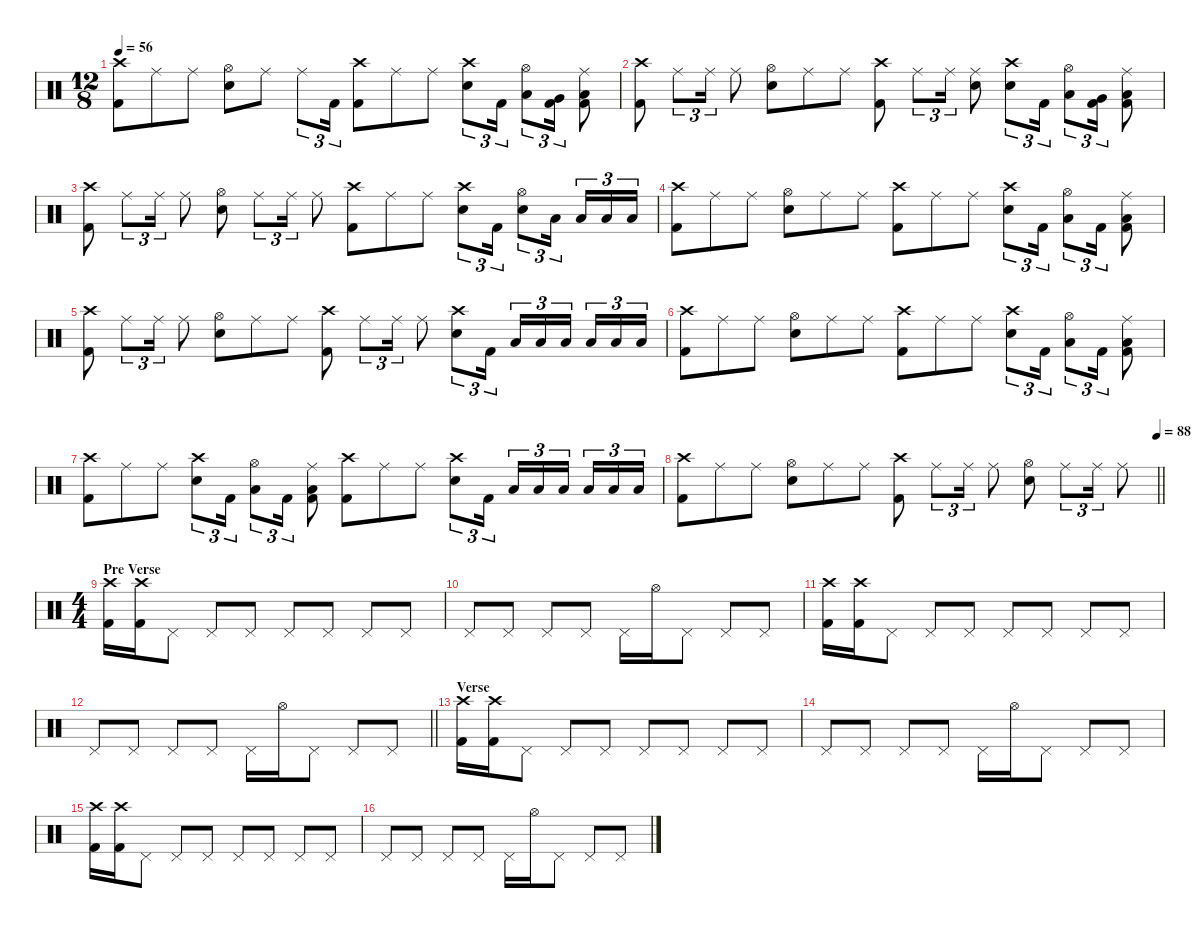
\defaultSystemsLayout 4
\hideDynamics
\bracketExtendMode nobrackets
\singleTrackTrackNamePolicy hidden
\multiTrackTrackNamePolicy hidden
\firstSystemTrackNameMode fullname
\firstSystemTrackNameOrientation horizontal
\otherSystemsTrackNameOrientation horizontal
\track ("Drums" "drm.") {instrument percussion}
\staff {score}
\articulation defaults
\ts (12 8)
\beaming (8 3 3 3 3)
\tempo 56
\clef neutral
\ks c
("Crash high (hit)" "Kick (hit) 2").8{dy f beam Down} "Ride (middle)".8{beam Down} "Ride (middle)".8{beam Down} ("Hi-Hat (open)" "Snare (hit) 2").8{beam Down} "Ride (middle)".8{beam Down} "Ride (middle)".8{tu (3 2) beam Down} "Kick (hit) 2".16{tu (3 2) beam Down} ("Crash high (hit)" "Kick (hit) 2").8{beam Down} "Ride (middle)".8{beam Down} "Ride (middle)".8{beam Down} ("Crash high (hit)" "Snare (hit) 2").8{tu (3 2) beam Down} "Kick (hit) 2".16{tu (3 2) beam Down} ("Hi-Hat (open)" "Low Tom (hit)").8{tu (3 2) beam Down} ("Very Low Tom (hit)" "Kick (hit) 2").16{tu (3 2) beam Down} ("Ride (middle)" "Low Tom (hit)" "Kick (hit) 2").8{beam Down} |
("Crash high (hit)" "Kick (hit) 2").8{beam Down} "Ride (middle)".8{tu (3 2) beam Down} "Ride (middle)".16{tu (3 2) beam Down} "Ride (middle)".8{beam Down} ("Hi-Hat (open)" "Snare (hit) 2").8{beam Down} "Ride (middle)".8{beam Down} "Ride (middle)".8{beam Down} ("Crash high (hit)" "Kick (hit) 2").8{beam Down} "Ride (middle)".8{tu (3 2) beam Down} "Ride (middle)".16{tu (3 2) beam Down} ("Ride (middle)" "Snare (hit) 2").8{beam Down} ("Crash high (hit)" "Snare (hit) 2").8{tu (3 2) beam Down} "Kick (hit) 2".16{tu (3 2) beam Down} ("Hi-Hat (open)" "Low Tom (hit)").8{tu (3 2) beam Down} ("Very Low Tom (hit)" "Kick (hit) 2").16{tu (3 2) beam Down} ("Ride (middle)" "Low Tom (hit)" "Kick (hit) 2").8{beam Down} |
("Crash high (hit)" "Kick (hit) 2").8{beam Down} "Ride (middle)".8{tu (3 2) beam Down} "Ride (middle)".16{tu (3 2) beam Down} "Ride (middle)".8{beam Down} ("Hi-Hat (open)" "Snare (hit) 2").8{beam Down} "Ride (middle)".8{tu (3 2) beam Down} "Ride (middle)".16{tu (3 2) beam Down} "Ride (middle)".8{beam Down} ("Crash high (hit)" "Kick (hit) 2").8{beam Down} "Ride (middle)".8{beam Down} "Ride (middle)".8{beam Down} ("Crash high (hit)" "Snare (hit) 2").8{tu (3 2) beam Down} "Kick (hit) 2".16{tu (3 2) beam Down} ("Hi-Hat (open)" "Snare (hit) 2").8{tu (3 2) beam Down} "Low Tom (hit)".16{tu (3 2) beam Down} "Low Tom (hit)".16{tu (3 2) beam Up} "Low Tom (hit)".16{tu (3 2) beam Up} "Low Tom (hit)".16{tu (3 2) beam Up} |
("Crash high (hit)" "Kick (hit) 2").8{beam Down} "Ride (middle)".8{beam Down} "Ride (middle)".8{beam Down} ("Hi-Hat (open)" "Snare (hit) 2").8{beam Down} "Ride (middle)".8{beam Down} "Ride (middle)".8{beam Down} ("Crash high (hit)" "Kick (hit) 2").8{beam Down} "Ride (middle)".8{beam Down} "Ride (middle)".8{beam Down} ("Crash high (hit)" "Snare (hit) 2").8{tu (3 2) beam Down} "Kick (hit) 2".16{tu (3 2) beam Down} ("Hi-Hat (open)" "Low Tom (hit)").8{tu (3 2) beam Down} "Kick (hit) 2".16{tu (3 2) beam Down} ("Ride (middle)" "Low Tom (hit)" "Kick (hit) 2").8{beam Down} |
("Crash high (hit)" "Kick (hit) 2").8{beam Down} "Ride (middle)".8{tu (3 2) beam Down} "Ride (middle)".16{tu (3 2) beam Down} "Ride (middle)".8{beam Down} ("Hi-Hat (open)" "Snare (hit) 2").8{beam Down} "Ride (middle)".8{beam Down} "Ride (middle)".8{beam Down} ("Crash high (hit)" "Kick (hit) 2").8{beam Down} "Ride (middle)".8{tu (3 2) beam Down} "Ride (middle)".16{tu (3 2) beam Down} "Ride (middle)".8{beam Down} ("Crash high (hit)" "Snare (hit) 2").8{tu (3 2) beam Down} "Kick (hit) 2".16{tu (3 2) beam Down} "Low Tom (hit)".16{tu (3 2) beam Up} "Low Tom (hit)".16{tu (3 2) beam Up} "Low Tom (hit)".16{tu (3 2) beam Up} "Low Tom (hit)".16{tu (3 2) beam Up} "Low Tom (hit)".16{tu (3 2) beam Up} "Low Tom (hit)".16{tu (3 2) beam Up} |
("Crash high (hit)" "Kick (hit) 2").8{beam Down} "Ride (middle)".8{beam Down} "Ride (middle)".8{beam Down} ("Hi-Hat (open)" "Snare (hit) 2").8{beam Down} "Ride (middle)".8{beam Down} "Ride (middle)".8{beam Down} ("Crash high (hit)" "Kick (hit) 2").8{beam Down} "Ride (middle)".8{beam Down} "Ride (middle)".8{beam Down} ("Crash high (hit)" "Snare (hit) 2").8{tu (3 2) beam Down} "Kick (hit) 2".16{tu (3 2) beam Down} ("Hi-Hat (open)" "Low Tom (hit)").8{tu (3 2) beam Down} "Kick (hit) 2".16{tu (3 2) beam Down} ("Ride (middle)" "Low Tom (hit)" "Kick (hit) 2").8{beam Down} |
("Crash high (hit)" "Kick (hit) 2").8{beam Down} "Ride (middle)".8{beam Down} "Ride (middle)".8{beam Down} ("Crash high (hit)" "Snare (hit) 2").8{tu (3 2) beam Down} "Kick (hit) 2".16{tu (3 2) beam Down} ("Hi-Hat (open)" "Low Tom (hit)").8{tu (3 2) beam Down} "Kick (hit) 2".16{tu (3 2) beam Down} ("Ride (middle)" "Low Tom (hit)" "Kick (hit) 2").8{beam Down} ("Crash high (hit)" "Kick (hit) 2").8{beam Down} "Ride (middle)".8{beam Down} "Ride (middle)".8{beam Down} ("Crash high (hit)" "Snare (hit) 2").8{tu (3 2) beam Down} "Kick (hit) 2".16{tu (3 2) beam Down} "Low Tom (hit)".16{tu (3 2) beam Up} "Low Tom (hit)".16{tu (3 2) beam Up} "Low Tom (hit)".16{tu (3 2) beam Up} "Low Tom (hit)".16{tu (3 2) beam Up} "Low Tom (hit)".16{tu (3 2) beam Up} "Low Tom (hit)".16{tu (3 2) beam Up} |
\tempo (88 1)
\barLineRight lightlight
("Crash high (hit)" "Kick (hit) 2").8{beam Down} "Ride (middle)".8{beam Down} "Ride (middle)".8{beam Down} ("Hi-Hat (open)" "Snare (hit) 2").8{beam Down} "Ride (middle)".8{beam Down} "Ride (middle)".8{beam Down} ("Crash high (hit)" "Kick (hit) 2").8{beam Down} "Ride (middle)".8{tu (3 2) beam Down} "Ride (middle)".16{tu (3 2) beam Down} "Ride (middle)".8{beam Down} ("Hi-Hat (open)" "Snare (hit) 2").8{beam Down} "Ride (middle)".8{tu (3 2) beam Down} "Ride (middle)".16{tu (3 2) beam Down} "Ride (middle)".8{beam Down} |
\ts (4 4)
\beaming (8 2 2 2 2)
\section ("" "Pre Verse")
("Crash high (hit)" "Kick (hit) 2").16{beam Down} ("Crash high (hit)" "Kick (hit) 2").16{beam Down} "Pedal Hi-Hat (hit)".8{beam Down} "Pedal Hi-Hat (hit)".8{beam Up} "Pedal Hi-Hat (hit)".8{beam Up} "Pedal Hi-Hat (hit)".8{beam Up} "Pedal Hi-Hat (hit)".8{beam Up} "Pedal Hi-Hat (hit)".8{beam Up} "Pedal Hi-Hat (hit)".8{beam Up} |
"Pedal Hi-Hat (hit)".8{beam Up} "Pedal Hi-Hat (hit)".8{beam Up} "Pedal Hi-Hat (hit)".8{beam Up} "Pedal Hi-Hat (hit)".8{beam Up} "Pedal Hi-Hat (hit)".16{beam Down} "Hi-Hat (open)".16{beam Down} "Pedal Hi-Hat (hit)".8{beam Down} "Pedal Hi-Hat (hit)".8{beam Up} "Pedal Hi-Hat (hit)".8{beam Up} |
("Crash high (hit)" "Kick (hit) 2").16{beam Down} ("Crash high (hit)" "Kick (hit) 2").16{beam Down} "Pedal Hi-Hat (hit)".8{beam Down} "Pedal Hi-Hat (hit)".8{beam Up} "Pedal Hi-Hat (hit)".8{beam Up} "Pedal Hi-Hat (hit)".8{beam Up} "Pedal Hi-Hat (hit)".8{beam Up} "Pedal Hi-Hat (hit)".8{beam Up} "Pedal Hi-Hat (hit)".8{beam Up} |
\barLineRight lightlight "Pedal Hi-Hat (hit)".8{beam Up} "Pedal Hi-Hat (hit)".8{beam Up} "Pedal Hi-Hat (hit)".8{beam Up} "Pedal Hi-Hat (hit)".8{beam Up} "Pedal Hi-Hat (hit)".16{beam Down} "Hi-Hat (open)".16{beam Down} "Pedal Hi-Hat (hit)".8{beam Down} "Pedal Hi-Hat (hit)".8{beam Up} "Pedal Hi-Hat (hit)".8{beam Up}
|
\section ("" "Verse")
("Crash high (hit)" "Kick (hit) 2").16{beam Down} ("Crash high (hit)" "Kick (hit) 2").16{beam Down} "Pedal Hi-Hat (hit)".8{beam Down} "Pedal Hi-Hat (hit)".8{beam Up} "Pedal Hi-Hat (hit)".8{beam Up} "Pedal Hi-Hat (hit)".8{beam Up} "Pedal Hi-Hat (hit)".8{beam Up} "Pedal Hi-Hat (hit)".8{beam Up} "Pedal Hi-Hat (hit)".8{beam Up} |
"Pedal Hi-Hat (hit)".8{beam Up} "Pedal Hi-Hat (hit)".8{beam Up} "Pedal Hi-Hat (hit)".8{beam Up} "Pedal Hi-Hat (hit)".8{beam Up} "Pedal Hi-Hat (hit)".16{beam Down} "Hi-Hat (open)".16{beam Down} "Pedal Hi-Hat (hit)".8{beam Down} "Pedal Hi-Hat (hit)".8{beam Up} "Pedal Hi-Hat (hit)".8{beam Up} |
("Crash high (hit)" "Kick (hit) 2").16{beam Down} ("Crash high (hit)" "Kick (hit) 2").16{beam Down} "Pedal Hi-Hat (hit)".8{beam Down} "Pedal Hi-Hat (hit)".8{beam Up} "Pedal Hi-Hat (hit)".8{beam Up} "Pedal Hi-Hat (hit)".8{beam Up} "Pedal Hi-Hat (hit)".8{beam Up} "Pedal Hi-Hat (hit)".8{beam Up} "Pedal Hi-Hat (hit)".8{beam Up} |
"Pedal Hi-Hat (hit)".8{beam Up} "Pedal Hi-Hat (hit)".8{beam Up} "Pedal Hi-Hat (hit)".8{beam Up} "Pedal Hi-Hat (hit)".8{beam Up} "Pedal Hi-Hat (hit)".16{beam Down} "Hi-Hat (open)".16{beam Down} "Pedal Hi-Hat (hit)".8{beam Down} "Pedal Hi-Hat (hit)".8{beam Up} "Pedal Hi-Hat (hit)".8{beam Up}
